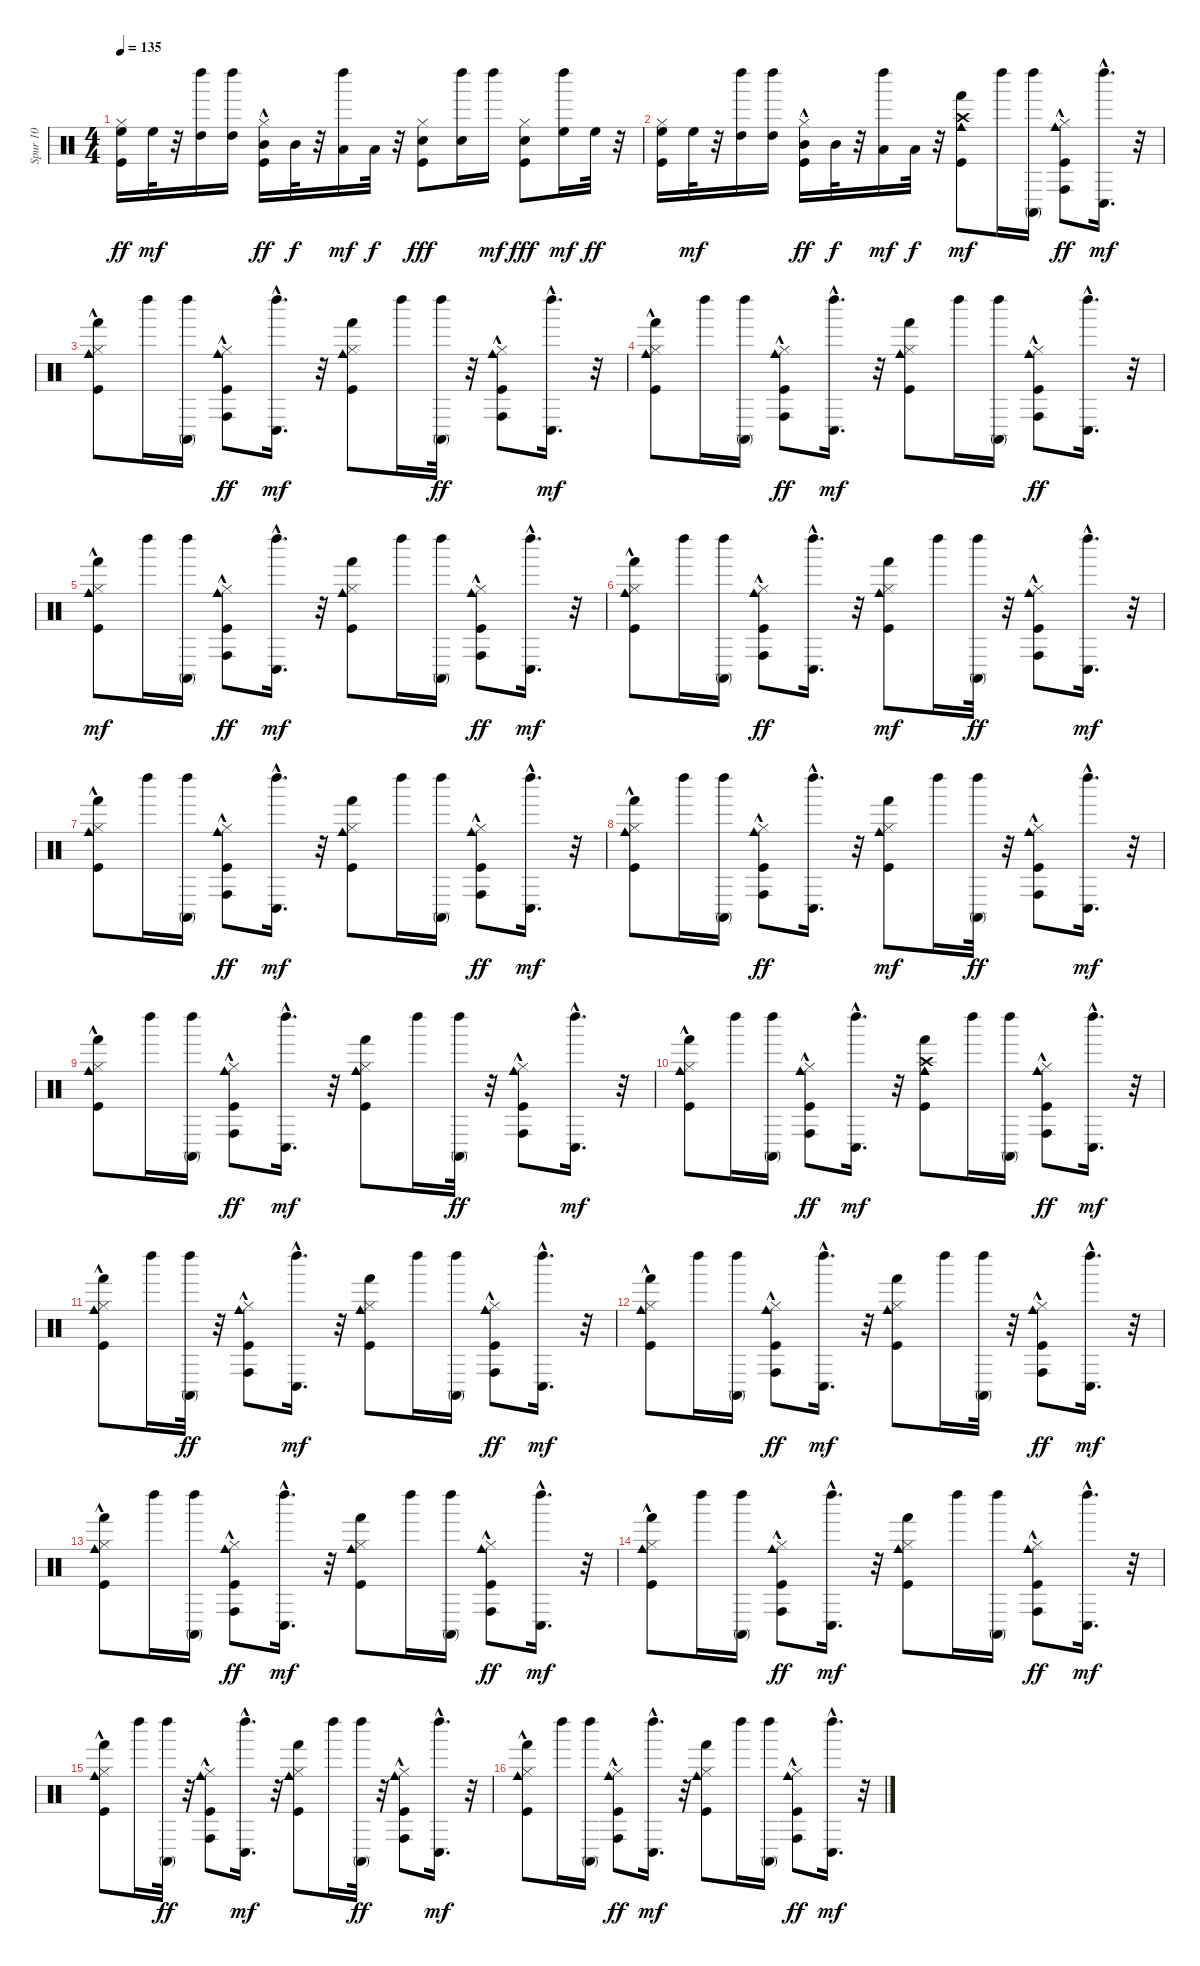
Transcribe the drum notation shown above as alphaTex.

\track ("Spur 10" "Spur 10") {instrument percussion}
\staff {score}
\articulation defaults
\ts (4 4)
\tempo 135
\clef neutral
\ks c
("Kick (hit)" "Hi-Hat (closed)" "High Floor Tom (hit)").16{dy ff} "High Floor Tom (hit)".32{dy mf} r.32 ("High Tom (hit)" "Left Maraca (hit)").16 ("High Tom (hit)" "Left Maraca (hit)").16 ("Kick (hit)"{hac} "Hi-Hat (closed)" "Mid Tom (hit)").16{dy ff} "Mid Tom (hit)".32{dy f} r.32 ("Low Tom (hit)" "Left Maraca (hit)").16{dy mf} "Low Tom (hit)".32{dy f} r.32 ("Hi-Hat (closed)" "Kick (hit)" "Hand Clap (hit)").8{dy fff} ("Left Maraca (hit)" "Hand Clap (hit)").16 "Left Maraca (hit)".16{dy mf} ("Kick (hit)" "Hi-Hat (closed)" "Hand Clap (hit)").8{dy fff} ("High Floor Tom (hit)" "Left Maraca (hit)").16{dy mf} "High Floor Tom (hit)".32{dy ff} r.32 |
("Kick (hit)" "Hi-Hat (closed)" "High Floor Tom (hit)").16 "High Floor Tom (hit)".32{dy mf} r.32 ("Left Maraca (hit)" "High Tom (hit)").16 ("High Tom (hit)" "Left Maraca (hit)").16 ("Kick (hit)"{hac} "Hi-Hat (closed)" "Mid Tom (hit)").16{dy ff} "Mid Tom (hit)".32{dy f} r.32 ("Low Tom (hit)" "Left Maraca (hit)").16{dy mf} "Low Tom (hit)".32{dy f} r.32 ("Kick (hit)" "Crash high (hit)" "Cowbell medium (hit)" "Hand (hit)").8{dy mf} "Left Maraca (hit)".16 ("Conga high (mute)" "Left Maraca (hit)").16 ("Kick (hit)" "Hi-Hat (closed)" "Cowbell medium (hit)" "Conga high (hit)"{hac}).8{dy ff} ("Conga low (hit)"{hac} "Left Maraca (hit)").16{d dy mf} r.32 |
("Kick (hit)" "Hi-Hat (closed)" "Cowbell medium (hit)" "Hand (hit)"{hac}).8 "Left Maraca (hit)".16 ("Conga high (mute)" "Left Maraca (hit)").16 ("Hi-Hat (closed)" "Cowbell medium (hit)" "Kick (hit)"{hac} "Conga high (hit)"{hac}).8{dy ff} ("Conga low (hit)"{hac} "Left Maraca (hit)").16{d dy mf} r.32 ("Kick (hit)" "Hi-Hat (closed)" "Cowbell medium (hit)" "Hand (hit)").8 "Left Maraca (hit)".16 ("Left Maraca (hit)" "Conga high (mute)").32{dy ff} r.32 ("Kick (hit)" "Hi-Hat (closed)" "Cowbell medium (hit)" "Conga high (hit)"{hac}).8 ("Conga low (hit)"{hac} "Left Maraca (hit)").16{d dy mf} r.32 |
("Kick (hit)" "Hi-Hat (closed)" "Cowbell medium (hit)" "Hand (hit)"{hac}).8 "Left Maraca (hit)".16 ("Conga high (mute)" "Left Maraca (hit)").16 ("Kick (hit)"{hac} "Hi-Hat (closed)" "Cowbell medium (hit)" "Conga high (hit)"{hac}).8{dy ff} ("Conga low (hit)"{hac} "Left Maraca (hit)").16{d dy mf} r.32 ("Hi-Hat (closed)" "Kick (hit)" "Cowbell medium (hit)" "Hand (hit)").8 "Left Maraca (hit)".16 ("Conga high (mute)" "Left Maraca (hit)").16 ("Kick (hit)" "Hi-Hat (closed)" "Cowbell medium (hit)" "Conga high (hit)"{hac}).8{dy ff} ("Left Maraca (hit)" "Conga low (hit)"{hac}).16{d} r.32 |
("Kick (hit)" "Hi-Hat (closed)" "Cowbell medium (hit)" "Hand (hit)"{hac}).8{dy mf} "Left Maraca (hit)".16 ("Conga high (mute)" "Left Maraca (hit)").16 ("Hi-Hat (closed)" "Kick (hit)"{hac} "Cowbell medium (hit)" "Conga high (hit)"{hac}).8{dy ff} ("Conga low (hit)"{hac} "Left Maraca (hit)").16{d dy mf} r.32 ("Kick (hit)" "Hi-Hat (closed)" "Cowbell medium (hit)" "Hand (hit)").8 "Left Maraca (hit)".16 ("Conga high (mute)" "Left Maraca (hit)").16 ("Kick (hit)" "Hi-Hat (closed)" "Cowbell medium (hit)" "Conga high (hit)"{hac}).8{dy ff} ("Conga low (hit)"{hac} "Left Maraca (hit)").16{d dy mf} r.32 |
("Kick (hit)" "Hi-Hat (closed)" "Cowbell medium (hit)" "Hand (hit)"{hac}).8 "Left Maraca (hit)".16 ("Conga high (mute)" "Left Maraca (hit)").16 ("Kick (hit)"{hac} "Hi-Hat (closed)" "Cowbell medium (hit)" "Conga high (hit)"{hac}).8{dy ff} ("Left Maraca (hit)" "Conga low (hit)"{hac}).16{d} r.32 ("Kick (hit)" "Hi-Hat (closed)" "Cowbell medium (hit)" "Hand (hit)").8{dy mf} "Left Maraca (hit)".16 ("Left Maraca (hit)" "Conga high (mute)").32{dy ff} r.32 ("Kick (hit)" "Hi-Hat (closed)" "Cowbell medium (hit)" "Conga high (hit)"{hac}).8 ("Conga low (hit)"{hac} "Left Maraca (hit)").16{d dy mf} r.32 |
("Kick (hit)" "Hi-Hat (closed)" "Cowbell medium (hit)" "Hand (hit)"{hac}).8 "Left Maraca (hit)".16 ("Conga high (mute)" "Left Maraca (hit)").16 ("Kick (hit)"{hac} "Hi-Hat (closed)" "Cowbell medium (hit)" "Conga high (hit)"{hac}).8{dy ff} ("Conga low (hit)"{hac} "Left Maraca (hit)").16{d dy mf} r.32 ("Kick (hit)" "Hi-Hat (closed)" "Cowbell medium (hit)" "Hand (hit)").8 "Left Maraca (hit)".16 ("Conga high (mute)" "Left Maraca (hit)").16 ("Kick (hit)" "Hi-Hat (closed)" "Cowbell medium (hit)" "Conga high (hit)"{hac}).8{dy ff} ("Conga low (hit)"{hac} "Left Maraca (hit)").16{d dy mf} r.32 |
("Kick (hit)" "Hi-Hat (closed)" "Cowbell medium (hit)" "Hand (hit)"{hac}).8 "Left Maraca (hit)".16 ("Conga high (mute)" "Left Maraca (hit)").16 ("Hi-Hat (closed)" "Cowbell medium (hit)" "Kick (hit)"{hac} "Conga high (hit)"{hac}).8{dy ff} ("Left Maraca (hit)" "Conga low (hit)"{hac}).16{d} r.32 ("Kick (hit)" "Hi-Hat (closed)" "Cowbell medium (hit)" "Hand (hit)").8{dy mf} "Left Maraca (hit)".16 ("Left Maraca (hit)" "Conga high (mute)").32{dy ff} r.32 ("Kick (hit)" "Hi-Hat (closed)" "Cowbell medium (hit)" "Conga high (hit)"{hac}).8 ("Conga low (hit)"{hac} "Left Maraca (hit)").16{d dy mf} r.32 |
("Kick (hit)" "Hi-Hat (closed)" "Cowbell medium (hit)" "Hand (hit)"{hac}).8 "Left Maraca (hit)".16 ("Conga high (mute)" "Left Maraca (hit)").16 ("Hi-Hat (closed)" "Kick (hit)"{hac} "Cowbell medium (hit)" "Conga high (hit)"{hac}).8{dy ff} ("Conga low (hit)"{hac} "Left Maraca (hit)").16{d dy mf} r.32 ("Kick (hit)" "Hi-Hat (closed)" "Cowbell medium (hit)" "Hand (hit)").8 "Left Maraca (hit)".16 ("Left Maraca (hit)" "Conga high (mute)").32{dy ff} r.32 ("Kick (hit)" "Hi-Hat (closed)" "Cowbell medium (hit)" "Conga high (hit)"{hac}).8 ("Conga low (hit)"{hac} "Left Maraca (hit)").16{d dy mf} r.32 |
("Kick (hit)" "Hi-Hat (closed)" "Cowbell medium (hit)" "Hand (hit)"{hac}).8 "Left Maraca (hit)".16 ("Conga high (mute)" "Left Maraca (hit)").16 ("Kick (hit)"{hac} "Hi-Hat (closed)" "Cowbell medium (hit)" "Conga high (hit)"{hac}).8{dy ff} ("Conga low (hit)"{hac} "Left Maraca (hit)").16{d dy mf} r.32 ("Kick (hit)" "Crash high (hit)" "Cowbell medium (hit)" "Hand (hit)").8 "Left Maraca (hit)".16 ("Conga high (mute)" "Left Maraca (hit)").16 ("Kick (hit)" "Hi-Hat (closed)" "Cowbell medium (hit)" "Conga high (hit)"{hac}).8{dy ff} ("Conga low (hit)"{hac} "Left Maraca (hit)").16{d dy mf} r.32 |
("Kick (hit)" "Hi-Hat (closed)" "Cowbell medium (hit)" "Hand (hit)"{hac}).8 "Left Maraca (hit)".16 ("Left Maraca (hit)" "Conga high (mute)").32{dy ff} r.32 ("Kick (hit)"{hac} "Hi-Hat (closed)" "Cowbell medium (hit)" "Conga high (hit)"{hac}).8 ("Conga low (hit)"{hac} "Left Maraca (hit)").16{d dy mf} r.32 ("Hi-Hat (closed)" "Kick (hit)" "Cowbell medium (hit)" "Hand (hit)").8 "Left Maraca (hit)".16 ("Conga high (mute)" "Left Maraca (hit)").16 ("Hi-Hat (closed)" "Kick (hit)" "Cowbell medium (hit)" "Conga high (hit)"{hac}).8{dy ff} ("Conga low (hit)"{hac} "Left Maraca (hit)").16{d dy mf} r.32 |
("Kick (hit)" "Hi-Hat (closed)" "Cowbell medium (hit)" "Hand (hit)"{hac}).8 "Left Maraca (hit)".16 ("Conga high (mute)" "Left Maraca (hit)").16 ("Kick (hit)"{hac} "Hi-Hat (closed)" "Cowbell medium (hit)" "Conga high (hit)"{hac}).8{dy ff} ("Conga low (hit)"{hac} "Left Maraca (hit)").16{d dy mf} r.32 ("Hi-Hat (closed)" "Kick (hit)" "Cowbell medium (hit)" "Hand (hit)").8 "Left Maraca (hit)".16 ("Conga high (mute)" "Left Maraca (hit)").32 r.32 ("Hi-Hat (closed)" "Kick (hit)" "Cowbell medium (hit)" "Conga high (hit)"{hac}).8{dy ff} ("Conga low (hit)"{hac} "Left Maraca (hit)").16{d dy mf} r.32 |
("Kick (hit)" "Hi-Hat (closed)" "Cowbell medium (hit)" "Hand (hit)"{hac}).8 "Left Maraca (hit)".16 ("Conga high (mute)" "Left Maraca (hit)").16 ("Kick (hit)"{hac} "Hi-Hat (closed)" "Cowbell medium (hit)" "Conga high (hit)"{hac}).8{dy ff} ("Conga low (hit)"{hac} "Left Maraca (hit)").16{d dy mf} r.32 ("Hi-Hat (closed)" "Kick (hit)" "Cowbell medium (hit)" "Hand (hit)").8 "Left Maraca (hit)".16 ("Conga high (mute)" "Left Maraca (hit)").16 ("Hi-Hat (closed)" "Cowbell medium (hit)" "Kick (hit)" "Conga high (hit)"{hac}).8{dy ff} ("Conga low (hit)"{hac} "Left Maraca (hit)").16{d dy mf} r.32 |
("Hi-Hat (closed)" "Kick (hit)" "Cowbell medium (hit)" "Hand (hit)"{hac}).8 "Left Maraca (hit)".16 ("Conga high (mute)" "Left Maraca (hit)").16 ("Kick (hit)"{hac} "Hi-Hat (closed)" "Cowbell medium (hit)" "Conga high (hit)"{hac}).8{dy ff} ("Conga low (hit)"{hac} "Left Maraca (hit)").16{d dy mf} r.32 ("Kick (hit)" "Hi-Hat (closed)" "Cowbell medium (hit)" "Hand (hit)").8 "Left Maraca (hit)".16 ("Conga high (mute)" "Left Maraca (hit)").16 ("Hi-Hat (closed)" "Cowbell medium (hit)" "Kick (hit)" "Conga high (hit)"{hac}).8{dy ff} ("Conga low (hit)"{hac} "Left Maraca (hit)").16{d dy mf} r.32 |
("Kick (hit)" "Hi-Hat (closed)" "Cowbell medium (hit)" "Hand (hit)"{hac}).8 "Left Maraca (hit)".16 ("Left Maraca (hit)" "Conga high (mute)").32{dy ff} r.32 ("Kick (hit)"{hac} "Hi-Hat (closed)" "Cowbell medium (hit)" "Conga high (hit)"{hac}).8 ("Conga low (hit)"{hac} "Left Maraca (hit)").16{d dy mf} r.32 ("Kick (hit)" "Hi-Hat (closed)" "Cowbell medium (hit)" "Hand (hit)").8 "Left Maraca (hit)".16 ("Left Maraca (hit)" "Conga high (mute)").32{dy ff} r.32 ("Kick (hit)" "Hi-Hat (closed)" "Cowbell medium (hit)" "Conga high (hit)"{hac}).8 ("Conga low (hit)"{hac} "Left Maraca (hit)").16{d dy mf} r.32 |
("Kick (hit)" "Hi-Hat (closed)" "Cowbell medium (hit)" "Hand (hit)"{hac}).8 "Left Maraca (hit)".16 ("Conga high (mute)" "Left Maraca (hit)").16 ("Kick (hit)"{hac} "Hi-Hat (closed)" "Cowbell medium (hit)" "Conga high (hit)"{hac}).8{dy ff} ("Conga low (hit)"{hac} "Left Maraca (hit)").16{d dy mf} r.32 ("Kick (hit)" "Hi-Hat (closed)" "Cowbell medium (hit)" "Hand (hit)").8 "Left Maraca (hit)".16 ("Conga high (mute)" "Left Maraca (hit)").16 ("Hi-Hat (closed)" "Kick (hit)" "Cowbell medium (hit)" "Conga high (hit)"{hac}).8{dy ff} ("Conga low (hit)"{hac} "Left Maraca (hit)").16{d dy mf} r.32
